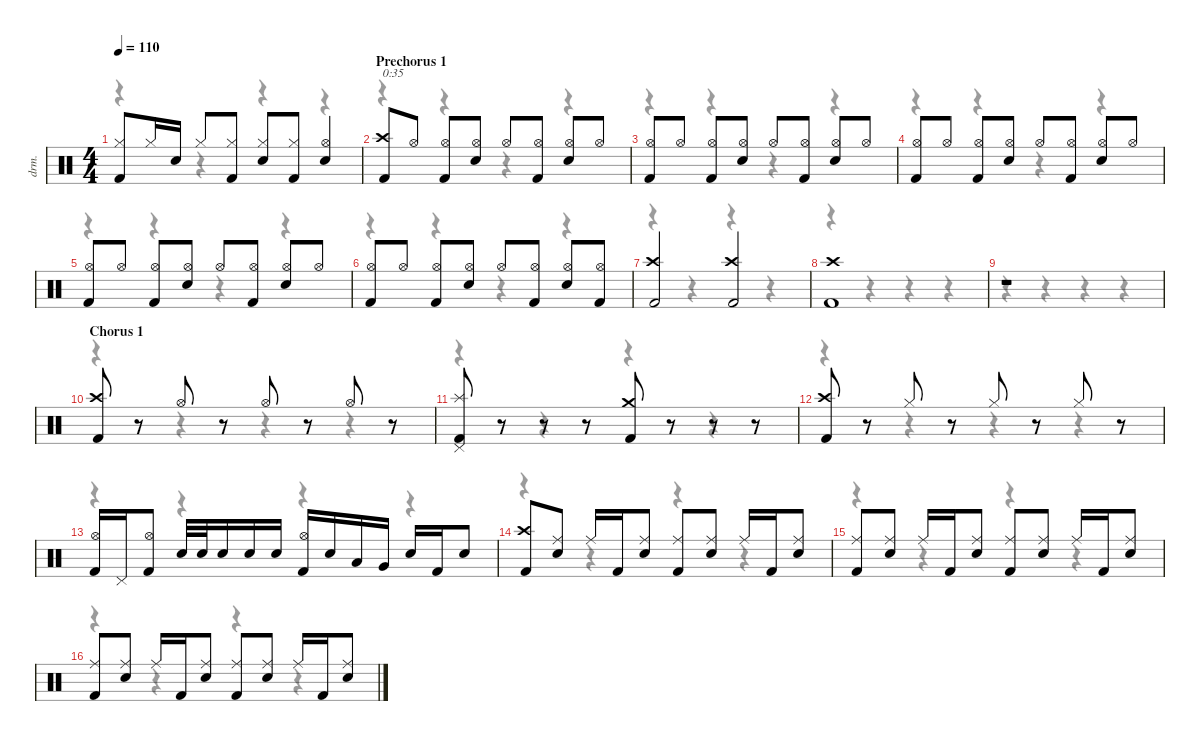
\defaultSystemsLayout 4
\hideDynamics
\bracketExtendMode nobrackets
\otherSystemsTrackNameOrientation horizontal
\track ("Drums" "drm.") {instrument percussion}
\staff {score}
\articulation defaults
\voice
\ts (4 4)
\tempo 110
\clef neutral
\ks c
("Hi-Hat (closed)" "Kick (hit) 2").8{dy f beam Up} "Hi-Hat (closed)".16{beam Up} "Snare (hit) 2".16{beam Up} "Hi-Hat (closed)".8{beam Up} ("Hi-Hat (closed)" "Kick (hit) 2").8{beam Up} ("Hi-Hat (closed)" "Snare (hit) 2").8{beam Up} ("Hi-Hat (closed)" "Kick (hit) 2").8{beam Up} ("Hi-Hat (open)" "Snare (hit) 2").4{beam Up} |
\section ("" "Prechorus 1")
("Crash high (hit)" "Kick (hit) 2").8{txt "0:35" beam Up} "Hi-Hat (open)".8{beam Up} ("Hi-Hat (open)" "Kick (hit) 2").8{beam Up} ("Hi-Hat (open)" "Snare (hit) 2").8{beam Up} "Hi-Hat (open)".8{beam Up} ("Hi-Hat (open)" "Kick (hit) 2").8{beam Up} ("Hi-Hat (open)" "Snare (hit) 2").8{beam Up} "Hi-Hat (open)".8{beam Up} |
("Hi-Hat (open)" "Kick (hit) 2").8{beam Up} "Hi-Hat (open)".8{beam Up} ("Hi-Hat (open)" "Kick (hit) 2").8{beam Up} ("Hi-Hat (open)" "Snare (hit) 2").8{beam Up} "Hi-Hat (open)".8{beam Up} ("Hi-Hat (open)" "Kick (hit) 2").8{beam Up} ("Hi-Hat (open)" "Snare (hit) 2").8{beam Up} "Hi-Hat (open)".8{beam Up} |
("Hi-Hat (open)" "Kick (hit) 2").8{beam Up} "Hi-Hat (open)".8{beam Up} ("Hi-Hat (open)" "Kick (hit) 2").8{beam Up} ("Hi-Hat (open)" "Snare (hit) 2").8{beam Up} "Hi-Hat (open)".8{beam Up} ("Hi-Hat (open)" "Kick (hit) 2").8{beam Up} ("Hi-Hat (open)" "Snare (hit) 2").8{beam Up} "Hi-Hat (open)".8{beam Up} |
("Hi-Hat (open)" "Kick (hit) 2").8{beam Up} "Hi-Hat (open)".8{beam Up} ("Hi-Hat (open)" "Kick (hit) 2").8{beam Up} ("Hi-Hat (open)" "Snare (hit) 2").8{beam Up} "Hi-Hat (open)".8{beam Up} ("Hi-Hat (open)" "Kick (hit) 2").8{beam Up} ("Hi-Hat (open)" "Snare (hit) 2").8{beam Up} "Hi-Hat (open)".8{beam Up} |
("Hi-Hat (open)" "Kick (hit) 2").8{beam Up} "Hi-Hat (open)".8{beam Up} ("Hi-Hat (open)" "Kick (hit) 2").8{beam Up} ("Hi-Hat (open)" "Snare (hit) 2").8{beam Up} "Hi-Hat (open)".8{beam Up} ("Hi-Hat (open)" "Kick (hit) 2").8{beam Up} ("Hi-Hat (open)" "Snare (hit) 2").8{beam Up} ("Hi-Hat (open)" "Kick (hit) 2").8{beam Up} |
("Crash high (hit)" "Kick (hit) 2").2{beam Up} ("Crash high (hit)" "Kick (hit) 2").2{beam Up} |
("Crash high (hit)" "Kick (hit) 2").1{beam Up} |
r.1{beam Up} |
\section ("" "Chorus 1")
("Crash high (hit)" "Kick (hit) 2").8{beam Up} r.8{beam Up} "Hi-Hat (open)".8{beam Up} r.8{beam Up} "Hi-Hat (open)".8{beam Up} r.8{beam Up} "Hi-Hat (open)".8{beam Up} r.8{beam Up} |
("Splash (hit)" "Pedal Hi-Hat (hit)" "Kick (hit) 2").8{beam Up} r.8{beam Up} r.8{beam Up} r.8{beam Up} ("Crash medium (hit)" "Kick (hit) 2").8{beam Up} r.8{beam Up} r.8{beam Up} r.8{beam Up} |
("Crash high (hit)" "Kick (hit) 2").8{beam Up} r.8{beam Up} "Hi-Hat (closed)".8{beam Up} r.8{beam Up} "Hi-Hat (closed)".8{beam Up} r.8{beam Up} "Hi-Hat (closed)".8{beam Up} r.8{beam Up} |
("Hi-Hat (open)" "Kick (hit) 2").16{beam Up} "Pedal Hi-Hat (hit)".16{beam Up} ("Hi-Hat (open)" "Kick (hit) 2").8{beam Up} "Snare (hit) 2".32{beam Up} "Snare (hit) 2".32{beam Up} "Snare (hit) 2".16{beam Up} "Snare (hit) 2".16{beam Up} "Snare (hit) 2".16{beam Up} ("Hi-Hat (open)" "Kick (hit) 2").16{beam Up} "Snare (hit) 2".16{beam Up} "Low Tom (hit)".16{beam Up} "Very Low Tom (hit)".16{beam Up} "Snare (hit) 2".16{beam Up} "Kick (hit) 2".16{beam Up} "Snare (hit) 2".8{beam Up} |
("Crash high (hit)" "Kick (hit) 2").8{beam Up} ("Ride (middle)" "Snare (hit) 2").8{beam Up} "Ride (middle)".16{beam Up} "Kick (hit) 2".16{beam Up} ("Ride (middle)" "Snare (hit) 2").8{beam Up} ("Ride (middle)" "Kick (hit) 2").8{beam Up} ("Ride (middle)" "Snare (hit) 2").8{beam Up} "Ride (middle)".16{beam Up} "Kick (hit) 2".16{beam Up} ("Ride (middle)" "Snare (hit) 2").8{beam Up} |
("Ride (middle)" "Kick (hit) 2").8{beam Up} ("Ride (middle)" "Snare (hit) 2").8{beam Up} "Ride (middle)".16{beam Up} "Kick (hit) 2".16{beam Up} ("Ride (middle)" "Snare (hit) 2").8{beam Up} ("Ride (middle)" "Kick (hit) 2").8{beam Up} ("Ride (middle)" "Snare (hit) 2").8{beam Up} "Ride (middle)".16{beam Up} "Kick (hit) 2".16{beam Up} ("Ride (middle)" "Snare (hit) 2").8{beam Up} |
("Ride (middle)" "Kick (hit) 2").8{beam Up} ("Ride (middle)" "Snare (hit) 2").8{beam Up} "Ride (middle)".16{beam Up} "Kick (hit) 2".16{beam Up} ("Ride (middle)" "Snare (hit) 2").8{beam Up} ("Ride (middle)" "Kick (hit) 2").8{beam Up} ("Ride (middle)" "Snare (hit) 2").8{beam Up} "Ride (middle)".16{beam Up} "Kick (hit) 2".16{beam Up} ("Ride (middle)" "Snare (hit) 2").8{beam Up}
\voice
\clef neutral
\ottava regular
\simile none
\ks c
r.4{dy mf beam Down} r.4{beam Down} r.4{beam Down} r.4{beam Down} |
r.4{beam Down} r.4{beam Down} r.4{beam Down} r.4{beam Down} |
r.4{beam Down} r.4{beam Down} r.4{beam Down} r.4{beam Down} |
r.4{beam Down} r.4{beam Down} r.4{beam Down} r.4{beam Down} |
r.4{beam Down} r.4{beam Down} r.4{beam Down} r.4{beam Down} |
r.4{beam Down} r.4{beam Down} r.4{beam Down} r.4{beam Down} |
r.4{beam Down} r.4{beam Down} r.4{beam Down} r.4{beam Down} |
r.4{beam Down} r.4{beam Down} r.4{beam Down} r.4{beam Down} |
r.4{beam Down} r.4{beam Down} r.4{beam Down} r.4{beam Down} |
r.4{beam Down} r.4{beam Down} r.4{beam Down} r.4{beam Down} |
r.4{beam Down} r.4{beam Down} r.4{beam Down} r.4{beam Down} |
r.4{beam Down} r.4{beam Down} r.4{beam Down} r.4{beam Down} |
r.4{beam Down} r.4{beam Down} r.4{beam Down} r.4{beam Down} |
r.4{beam Down} r.4{beam Down} r.4{beam Down} r.4{beam Down} |
r.4{beam Down} r.4{beam Down} r.4{beam Down} r.4{beam Down} |
r.4{beam Down} r.4{beam Down} r.4{beam Down} r.4{beam Down}
